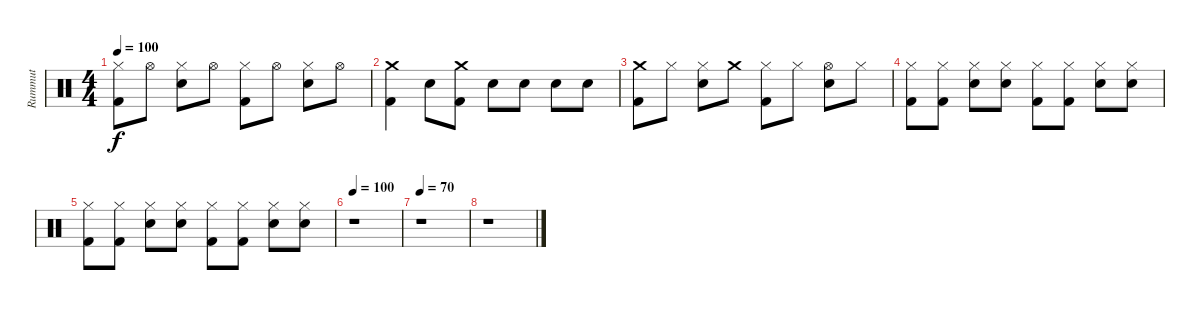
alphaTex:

\track ("Rummut" "Rummut") {instrument percussion}
\staff {score}
\articulation defaults
\ts (4 4)
\tempo 100
\clef neutral
\ks c
("Hi-Hat (closed)" "Kick (hit) 2").8{dy f} "Hi-Hat (open)".8 ("Hi-Hat (closed)" "Snare (hit) 2").8 "Hi-Hat (open)".8 ("Hi-Hat (closed)" "Kick (hit) 2").8 "Hi-Hat (open)".8 ("Hi-Hat (closed)" "Snare (hit) 2").8 "Hi-Hat (open)".8 |
("Crash medium (hit)" "Kick (hit) 2").4 "Snare (hit) 2".8 ("Crash medium (hit)" "Kick (hit) 2").8 "Snare (hit) 2".8 "Snare (hit) 2".8 "Snare (hit) 2".8 "Snare (hit) 2".8 |
("Crash medium (hit)" "Kick (hit) 2").8 "Hi-Hat (closed)".8 ("Hi-Hat (closed)" "Snare (hit) 2").8 "Crash medium (hit)".8 ("Hi-Hat (closed)" "Kick (hit) 2").8 "Hi-Hat (closed)".8 ("Hi-Hat (open)" "Snare (hit) 2").8 "Hi-Hat (closed)".8 |
("Hi-Hat (closed)" "Kick (hit) 2").8 ("Hi-Hat (closed)" "Kick (hit) 2").8 ("Hi-Hat (closed)" "Snare (hit) 2").8 ("Hi-Hat (closed)" "Snare (hit) 2").8 ("Hi-Hat (closed)" "Kick (hit) 2").8 ("Hi-Hat (closed)" "Kick (hit) 2").8 ("Hi-Hat (closed)" "Snare (hit) 2").8 ("Hi-Hat (closed)" "Snare (hit) 2").8 |
("Hi-Hat (closed)" "Kick (hit) 2").8 ("Hi-Hat (closed)" "Kick (hit) 2").8 ("Hi-Hat (closed)" "Snare (hit) 2").8 ("Hi-Hat (closed)" "Snare (hit) 2").8 ("Hi-Hat (closed)" "Kick (hit) 2").8 ("Hi-Hat (closed)" "Kick (hit) 2").8 ("Hi-Hat (closed)" "Snare (hit) 2").8 ("Hi-Hat (closed)" "Snare (hit) 2").8 |
\tempo 100
r.1 |
\tempo 70
r.1 |
r.1
